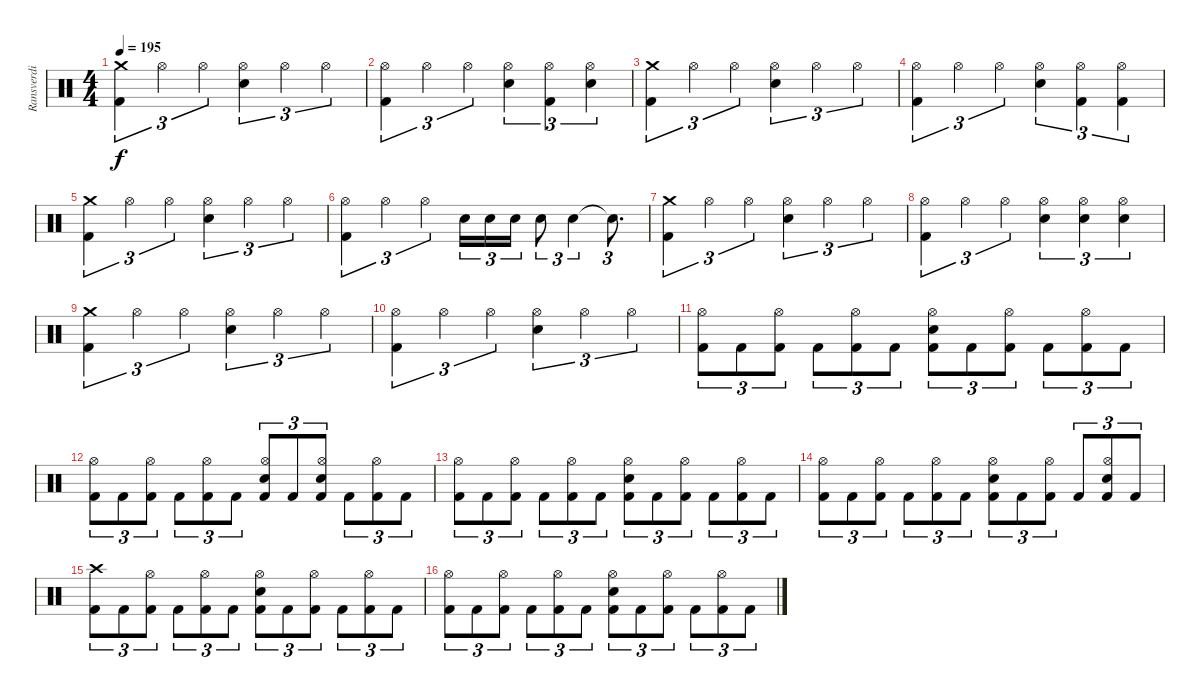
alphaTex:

\track ("Ransverdi" "Ransverdi") {instrument percussion}
\staff {score}
\articulation defaults
\ts (4 4)
\tempo 195
\clef neutral
\ks c
("Crash medium (hit)" "Kick (hit) 2").4{tu (3 2) dy f} "Hi-Hat (open)".4{tu (3 2)} "Hi-Hat (open)".4{tu (3 2)} ("Hi-Hat (open)" "Snare (hit) 2").4{tu (3 2)} "Hi-Hat (open)".4{tu (3 2)} "Hi-Hat (open)".4{tu (3 2)} |
("Hi-Hat (open)" "Kick (hit) 2").4{tu (3 2)} "Hi-Hat (open)".4{tu (3 2)} "Hi-Hat (open)".4{tu (3 2)} ("Hi-Hat (open)" "Snare (hit) 2").4{tu (3 2)} ("Hi-Hat (open)" "Kick (hit) 2").4{tu (3 2)} ("Hi-Hat (open)" "Snare (hit) 2").4{tu (3 2)} |
("Crash medium (hit)" "Kick (hit) 2").4{tu (3 2)} "Hi-Hat (open)".4{tu (3 2)} "Hi-Hat (open)".4{tu (3 2)} ("Hi-Hat (open)" "Snare (hit) 2").4{tu (3 2)} "Hi-Hat (open)".4{tu (3 2)} "Hi-Hat (open)".4{tu (3 2)} |
("Hi-Hat (open)" "Kick (hit) 2").4{tu (3 2)} "Hi-Hat (open)".4{tu (3 2)} "Hi-Hat (open)".4{tu (3 2)} ("Hi-Hat (open)" "Snare (hit) 2").4{tu (3 2)} ("Hi-Hat (open)" "Kick (hit) 2").4{tu (3 2)} ("Hi-Hat (open)" "Kick (hit) 2").4{tu (3 2)} |
("Crash medium (hit)" "Kick (hit) 2").4{tu (3 2)} "Hi-Hat (open)".4{tu (3 2)} "Hi-Hat (open)".4{tu (3 2)} ("Hi-Hat (open)" "Snare (hit) 2").4{tu (3 2)} "Hi-Hat (open)".4{tu (3 2)} "Hi-Hat (open)".4{tu (3 2)} |
("Hi-Hat (open)" "Kick (hit) 2").4{tu (3 2)} "Hi-Hat (open)".4{tu (3 2)} "Hi-Hat (open)".4{tu (3 2)} "Snare (hit) 2".16{tu (3 2)} "Snare (hit) 2".16{tu (3 2)} "Snare (hit) 2".16{tu (3 2)} "Snare (hit) 2".8{tu (3 2)} "Snare (hit) 2".4{tu (3 2)} "Snare (hit)"{t}.8{d tu (3 2)} |
("Crash medium (hit)" "Kick (hit) 2").4{tu (3 2)} "Hi-Hat (open)".4{tu (3 2)} "Hi-Hat (open)".4{tu (3 2)} ("Hi-Hat (open)" "Snare (hit) 2").4{tu (3 2)} "Hi-Hat (open)".4{tu (3 2)} "Hi-Hat (open)".4{tu (3 2)} |
("Hi-Hat (open)" "Kick (hit) 2").4{tu (3 2)} "Hi-Hat (open)".4{tu (3 2)} "Hi-Hat (open)".4{tu (3 2)} ("Hi-Hat (open)" "Snare (hit) 2").4{tu (3 2)} ("Hi-Hat (open)" "Snare (hit) 2").4{tu (3 2)} ("Hi-Hat (open)" "Snare (hit) 2").4{tu (3 2)} |
("Crash medium (hit)" "Kick (hit) 2").4{tu (3 2)} "Hi-Hat (open)".4{tu (3 2)} "Hi-Hat (open)".4{tu (3 2)} ("Hi-Hat (open)" "Snare (hit) 2").4{tu (3 2)} "Hi-Hat (open)".4{tu (3 2)} "Hi-Hat (open)".4{tu (3 2)} |
("Hi-Hat (open)" "Kick (hit) 2").4{tu (3 2)} "Hi-Hat (open)".4{tu (3 2)} "Hi-Hat (open)".4{tu (3 2)} ("Hi-Hat (open)" "Snare (hit) 2").4{tu (3 2)} "Hi-Hat (open)".4{tu (3 2)} "Hi-Hat (open)".4{tu (3 2)} |
("Hi-Hat (open)" "Kick (hit) 2").8{tu (3 2)} "Kick (hit) 2".8{tu (3 2)} ("Hi-Hat (open)" "Kick (hit) 2").8{tu (3 2)} "Kick (hit) 2".8{tu (3 2)} ("Hi-Hat (open)" "Kick (hit) 2").8{tu (3 2)} "Kick (hit) 2".8{tu (3 2)} ("Hi-Hat (open)" "Snare (hit) 2" "Kick (hit) 2").8{tu (3 2)} "Kick (hit) 2".8{tu (3 2)} ("Hi-Hat (open)" "Kick (hit) 2").8{tu (3 2)} "Kick (hit) 2".8{tu (3 2)} ("Hi-Hat (open)" "Kick (hit) 2").8{tu (3 2)} "Kick (hit) 2".8{tu (3 2)} |
("Hi-Hat (open)" "Kick (hit) 2").8{tu (3 2)} "Kick (hit) 2".8{tu (3 2)} ("Hi-Hat (open)" "Kick (hit) 2").8{tu (3 2)} "Kick (hit) 2".8{tu (3 2)} ("Hi-Hat (open)" "Kick (hit) 2").8{tu (3 2)} "Kick (hit) 2".8{tu (3 2)} ("Hi-Hat (open)" "Snare (hit) 2" "Kick (hit) 2").8{tu (3 2)} "Kick (hit) 2".8{tu (3 2)} ("Hi-Hat (open)" "Snare (hit) 2" "Kick (hit) 2").8{tu (3 2)} "Kick (hit) 2".8{tu (3 2)} ("Hi-Hat (open)" "Kick (hit) 2").8{tu (3 2)} "Kick (hit) 2".8{tu (3 2)} |
("Hi-Hat (open)" "Kick (hit) 2").8{tu (3 2)} "Kick (hit) 2".8{tu (3 2)} ("Hi-Hat (open)" "Kick (hit) 2").8{tu (3 2)} "Kick (hit) 2".8{tu (3 2)} ("Hi-Hat (open)" "Kick (hit) 2").8{tu (3 2)} "Kick (hit) 2".8{tu (3 2)} ("Hi-Hat (open)" "Snare (hit) 2" "Kick (hit) 2").8{tu (3 2)} "Kick (hit) 2".8{tu (3 2)} ("Hi-Hat (open)" "Kick (hit) 2").8{tu (3 2)} "Kick (hit) 2".8{tu (3 2)} ("Hi-Hat (open)" "Kick (hit) 2").8{tu (3 2)} "Kick (hit) 2".8{tu (3 2)} |
("Hi-Hat (open)" "Kick (hit) 2").8{tu (3 2)} "Kick (hit) 2".8{tu (3 2)} ("Hi-Hat (open)" "Kick (hit) 2").8{tu (3 2)} "Kick (hit) 2".8{tu (3 2)} ("Hi-Hat (open)" "Kick (hit) 2").8{tu (3 2)} "Kick (hit) 2".8{tu (3 2)} ("Hi-Hat (open)" "Snare (hit) 2" "Kick (hit) 2").8{tu (3 2)} "Kick (hit) 2".8{tu (3 2)} ("Hi-Hat (open)" "Kick (hit) 2").8{tu (3 2)} "Kick (hit) 2".8{tu (3 2)} ("Hi-Hat (open)" "Snare (hit) 2" "Kick (hit) 2").8{tu (3 2)} "Kick (hit) 2".8{tu (3 2)} |
("Crash high (hit)" "Kick (hit) 2").8{tu (3 2)} "Kick (hit) 2".8{tu (3 2)} ("Hi-Hat (open)" "Kick (hit) 2").8{tu (3 2)} "Kick (hit) 2".8{tu (3 2)} ("Hi-Hat (open)" "Kick (hit) 2").8{tu (3 2)} "Kick (hit) 2".8{tu (3 2)} ("Hi-Hat (open)" "Snare (hit) 2" "Kick (hit) 2").8{tu (3 2)} "Kick (hit) 2".8{tu (3 2)} ("Hi-Hat (open)" "Kick (hit) 2").8{tu (3 2)} "Kick (hit) 2".8{tu (3 2)} ("Hi-Hat (open)" "Kick (hit) 2").8{tu (3 2)} "Kick (hit) 2".8{tu (3 2)} |
("Hi-Hat (open)" "Kick (hit) 2").8{tu (3 2)} "Kick (hit) 2".8{tu (3 2)} ("Hi-Hat (open)" "Kick (hit) 2").8{tu (3 2)} "Kick (hit) 2".8{tu (3 2)} ("Hi-Hat (open)" "Kick (hit) 2").8{tu (3 2)} "Kick (hit) 2".8{tu (3 2)} ("Hi-Hat (open)" "Snare (hit) 2" "Kick (hit) 2").8{tu (3 2)} "Kick (hit) 2".8{tu (3 2)} ("Hi-Hat (open)" "Kick (hit) 2").8{tu (3 2)} "Kick (hit) 2".8{tu (3 2)} ("Hi-Hat (open)" "Kick (hit) 2").8{tu (3 2)} "Kick (hit) 2".8{tu (3 2)}
